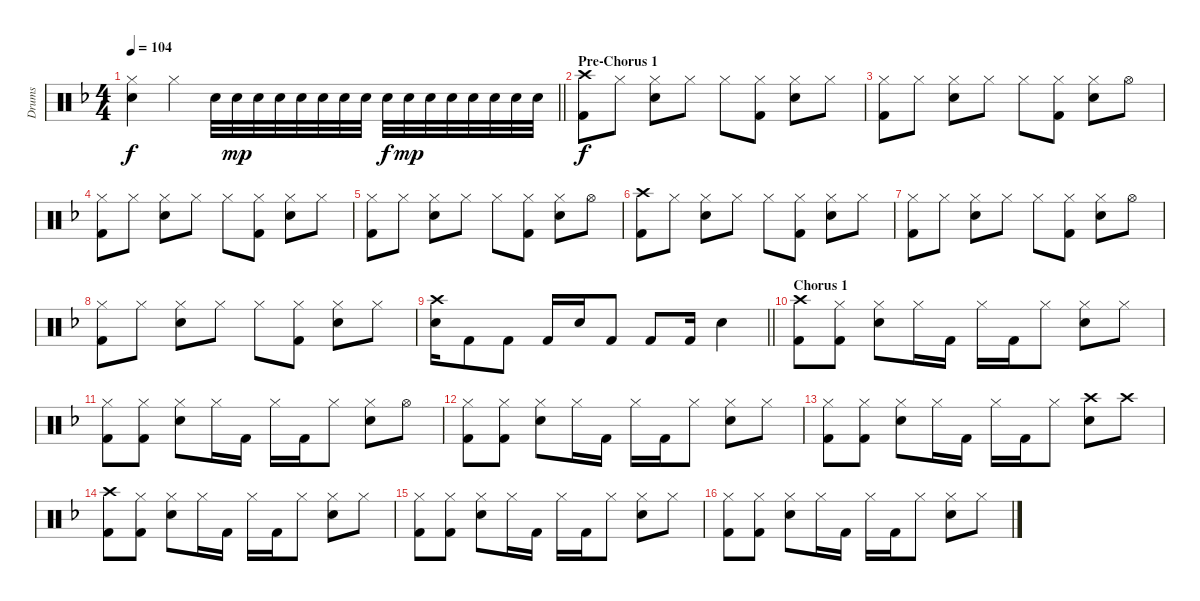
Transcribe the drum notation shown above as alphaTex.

\track ("Drums" "Drums") {instrument percussion}
\staff {score}
\articulation defaults
\ts (4 4)
\tempo 104
\clef neutral
\barLineRight lightlight
\ks dminor
("Hi-Hat (closed)" "Electric Snare (hit)").4{dy f} "Hi-Hat (closed)".4 "Electric Snare (hit)".32 "Electric Snare (hit)".32{dy mp} "Electric Snare (hit)".32 "Electric Snare (hit)".32 "Electric Snare (hit)".32 "Electric Snare (hit)".32 "Electric Snare (hit)".32 "Electric Snare (hit)".32 "Electric Snare (hit)".32{dy f} "Electric Snare (hit)".32{dy mp} "Electric Snare (hit)".32 "Electric Snare (hit)".32 "Electric Snare (hit)".32 "Electric Snare (hit)".32 "Electric Snare (hit)".32 "Electric Snare (hit)".32 |
\section ("" "Pre-Chorus 1")
("Crash high (hit)" "Kick (hit) 2").8{dy f} "Hi-Hat (closed)".8 ("Hi-Hat (closed)" "Electric Snare (hit)").8 "Hi-Hat (closed)".8 "Hi-Hat (closed)".8 ("Hi-Hat (closed)" "Kick (hit) 2").8 ("Hi-Hat (closed)" "Electric Snare (hit)").8 "Hi-Hat (closed)".8 |
("Hi-Hat (closed)" "Kick (hit) 2").8 "Hi-Hat (closed)".8 ("Hi-Hat (closed)" "Electric Snare (hit)").8 "Hi-Hat (closed)".8 "Hi-Hat (closed)".8 ("Hi-Hat (closed)" "Kick (hit) 2").8 ("Hi-Hat (closed)" "Electric Snare (hit)").8 "Hi-Hat (open)".8 |
("Hi-Hat (closed)" "Kick (hit) 2").8 "Hi-Hat (closed)".8 ("Hi-Hat (closed)" "Electric Snare (hit)").8 "Hi-Hat (closed)".8 "Hi-Hat (closed)".8 ("Hi-Hat (closed)" "Kick (hit) 2").8 ("Hi-Hat (closed)" "Electric Snare (hit)").8 "Hi-Hat (closed)".8 |
("Hi-Hat (closed)" "Kick (hit) 2").8 "Hi-Hat (closed)".8 ("Hi-Hat (closed)" "Electric Snare (hit)").8 "Hi-Hat (closed)".8 "Hi-Hat (closed)".8 ("Hi-Hat (closed)" "Kick (hit) 2").8 ("Hi-Hat (closed)" "Electric Snare (hit)").8 "Hi-Hat (open)".8 |
("Crash high (hit)" "Kick (hit) 2").8 "Hi-Hat (closed)".8 ("Hi-Hat (closed)" "Electric Snare (hit)").8 "Hi-Hat (closed)".8 "Hi-Hat (closed)".8 ("Hi-Hat (closed)" "Kick (hit) 2").8 ("Hi-Hat (closed)" "Electric Snare (hit)").8 "Hi-Hat (closed)".8 |
("Hi-Hat (closed)" "Kick (hit) 2").8 "Hi-Hat (closed)".8 ("Hi-Hat (closed)" "Electric Snare (hit)").8 "Hi-Hat (closed)".8 "Hi-Hat (closed)".8 ("Hi-Hat (closed)" "Kick (hit) 2").8 ("Hi-Hat (closed)" "Electric Snare (hit)").8 "Hi-Hat (open)".8 |
("Hi-Hat (closed)" "Kick (hit) 2").8 "Hi-Hat (closed)".8 ("Hi-Hat (closed)" "Electric Snare (hit)").8 "Hi-Hat (closed)".8 "Hi-Hat (closed)".8 ("Hi-Hat (closed)" "Kick (hit) 2").8 ("Hi-Hat (closed)" "Electric Snare (hit)").8 "Hi-Hat (closed)".8 |
\barLineRight lightlight
("Crash high (hit)" "Electric Snare (hit)").16 "Kick (hit) 2".8 "Kick (hit) 2".8 "Kick (hit) 2".16 "Electric Snare (hit)".16 "Kick (hit) 2".8 "Kick (hit) 2".8 "Kick (hit) 2".16 "Electric Snare (hit)".4 |
\section ("" "Chorus 1")
("Crash high (hit)" "Kick (hit) 2").8 ("Hi-Hat (closed)" "Kick (hit) 2").8 ("Hi-Hat (closed)" "Electric Snare (hit)").8 "Hi-Hat (closed)".16 "Kick (hit) 2".16 "Hi-Hat (closed)".16 "Kick (hit) 2".16 "Hi-Hat (closed)".8 ("Hi-Hat (closed)" "Electric Snare (hit)").8 "Hi-Hat (closed)".8 |
("Hi-Hat (closed)" "Kick (hit) 2").8 ("Hi-Hat (closed)" "Kick (hit) 2").8 ("Hi-Hat (closed)" "Electric Snare (hit)").8 "Hi-Hat (closed)".16 "Kick (hit) 2".16 "Hi-Hat (closed)".16 "Kick (hit) 2".16 "Hi-Hat (closed)".8 ("Hi-Hat (closed)" "Electric Snare (hit)").8 "Hi-Hat (open)".8 |
("Hi-Hat (closed)" "Kick (hit) 2").8 ("Hi-Hat (closed)" "Kick (hit) 2").8 ("Hi-Hat (closed)" "Electric Snare (hit)").8 "Hi-Hat (closed)".16 "Kick (hit) 2".16 "Hi-Hat (closed)".16 "Kick (hit) 2".16 "Hi-Hat (closed)".8 ("Hi-Hat (closed)" "Electric Snare (hit)").8 "Hi-Hat (closed)".8 |
("Hi-Hat (closed)" "Kick (hit) 2").8 ("Hi-Hat (closed)" "Kick (hit) 2").8 ("Hi-Hat (closed)" "Electric Snare (hit)").8 "Hi-Hat (closed)".16 "Kick (hit) 2".16 "Hi-Hat (closed)".16 "Kick (hit) 2".16 "Hi-Hat (closed)".8 ("Crash high (hit)" "Electric Snare (hit)").8 "Crash high (hit)".8 |
("Crash high (hit)" "Kick (hit) 2").8 ("Hi-Hat (closed)" "Kick (hit) 2").8 ("Hi-Hat (closed)" "Electric Snare (hit)").8 "Hi-Hat (closed)".16 "Kick (hit) 2".16 "Hi-Hat (closed)".16 "Kick (hit) 2".16 "Hi-Hat (closed)".8 ("Hi-Hat (closed)" "Electric Snare (hit)").8 "Hi-Hat (closed)".8 |
("Hi-Hat (closed)" "Kick (hit) 2").8 ("Hi-Hat (closed)" "Kick (hit) 2").8 ("Hi-Hat (closed)" "Electric Snare (hit)").8 "Hi-Hat (closed)".16 "Kick (hit) 2".16 "Hi-Hat (closed)".16 "Kick (hit) 2".16 "Hi-Hat (closed)".8 ("Hi-Hat (closed)" "Electric Snare (hit)").8 "Hi-Hat (closed)".8 |
("Hi-Hat (closed)" "Kick (hit) 2").8 ("Hi-Hat (closed)" "Kick (hit) 2").8 ("Hi-Hat (closed)" "Electric Snare (hit)").8 "Hi-Hat (closed)".16 "Kick (hit) 2".16 "Hi-Hat (closed)".16 "Kick (hit) 2".16 "Hi-Hat (closed)".8 ("Hi-Hat (closed)" "Electric Snare (hit)").8 "Hi-Hat (closed)".8
